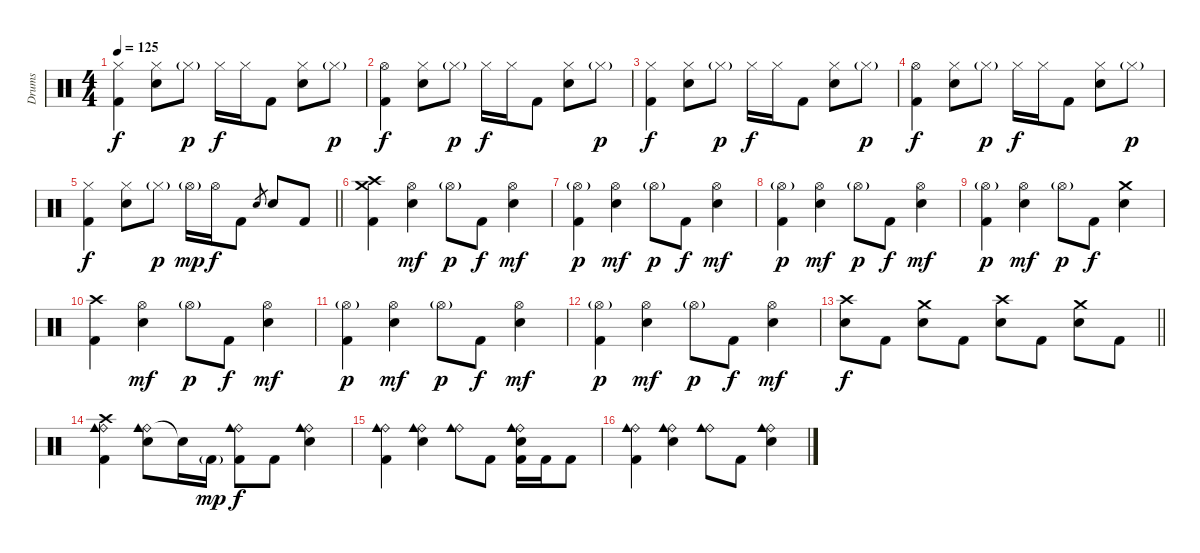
\track ("Drums" "Drums") {instrument percussion}
\staff {score}
\articulation defaults
\ts (4 4)
\tempo 125
\clef neutral
\ks c
("Hi-Hat (closed)" "Kick (hit) 2").4{dy f} ("Hi-Hat (closed)" "Electric Snare (hit)").8 "Hi-Hat (closed)"{g}.8{dy p} "Hi-Hat (closed)".16{dy f} "Hi-Hat (closed)".16 "Kick (hit) 2".8 ("Hi-Hat (closed)" "Electric Snare (hit)").8 "Hi-Hat (closed)"{g}.8{dy p} |
("Hi-Hat (open)" "Kick (hit) 2").4{dy f} ("Hi-Hat (closed)" "Electric Snare (hit)").8 "Hi-Hat (closed)"{g}.8{dy p} "Hi-Hat (closed)".16{dy f} "Hi-Hat (closed)".16 "Kick (hit) 2".8 ("Hi-Hat (closed)" "Electric Snare (hit)").8 "Hi-Hat (closed)"{g}.8{dy p} |
("Hi-Hat (closed)" "Kick (hit) 2").4{dy f} ("Hi-Hat (closed)" "Electric Snare (hit)").8 "Hi-Hat (closed)"{g}.8{dy p} "Hi-Hat (closed)".16{dy f} "Hi-Hat (closed)".16 "Kick (hit) 2".8 ("Hi-Hat (closed)" "Electric Snare (hit)").8 "Hi-Hat (closed)"{g}.8{dy p} |
("Hi-Hat (open)" "Kick (hit) 2").4{dy f} ("Hi-Hat (closed)" "Electric Snare (hit)").8 "Hi-Hat (closed)"{g}.8{dy p} "Hi-Hat (closed)".16{dy f} "Hi-Hat (closed)".16 "Kick (hit) 2".8 ("Hi-Hat (closed)" "Electric Snare (hit)").8 "Hi-Hat (closed)"{g}.8{dy p} |
\barLineRight lightlight
("Hi-Hat (closed)" "Kick (hit) 2").4{dy f} ("Hi-Hat (closed)" "Electric Snare (hit)").8 "Hi-Hat (closed)"{g}.8{dy p} "Hi-Hat (open)"{g}.16{dy mp} "Hi-Hat (open)".16{dy f} "Kick (hit) 2".8 "Electric Snare (hit)".8{gr} "Electric Snare (hit)".8 "Kick (hit) 2".8 |
("Crash high (hit)" "Crash medium (hit)" "Kick (hit) 2").4 ("Hi-Hat (open)" "Electric Snare (hit)").4{dy mf} "Hi-Hat (open)"{g}.8{dy p} "Kick (hit) 2".8{dy f} ("Hi-Hat (open)" "Electric Snare (hit)").4{dy mf} |
("Hi-Hat (open)"{g} "Kick (hit) 2").4{dy p} ("Hi-Hat (open)" "Electric Snare (hit)").4{dy mf} "Hi-Hat (open)"{g}.8{dy p} "Kick (hit) 2".8{dy f} ("Hi-Hat (open)" "Electric Snare (hit)").4{dy mf} |
("Hi-Hat (open)"{g} "Kick (hit) 2").4{dy p} ("Hi-Hat (open)" "Electric Snare (hit)").4{dy mf} "Hi-Hat (open)"{g}.8{dy p} "Kick (hit) 2".8{dy f} ("Hi-Hat (open)" "Electric Snare (hit)").4{dy mf} |
("Hi-Hat (open)"{g} "Kick (hit) 2").4{dy p} ("Hi-Hat (open)" "Electric Snare (hit)").4{dy mf} "Hi-Hat (open)"{g}.8{dy p} "Kick (hit) 2".8{dy f} ("Crash medium (hit)" "Electric Snare (hit)").4 |
("Crash high (hit)" "Kick (hit) 2").4 ("Hi-Hat (open)" "Electric Snare (hit)").4{dy mf} "Hi-Hat (open)"{g}.8{dy p} "Kick (hit) 2".8{dy f} ("Hi-Hat (open)" "Electric Snare (hit)").4{dy mf} |
("Hi-Hat (open)"{g} "Kick (hit) 2").4{dy p} ("Hi-Hat (open)" "Electric Snare (hit)").4{dy mf} "Hi-Hat (open)"{g}.8{dy p} "Kick (hit) 2".8{dy f} ("Hi-Hat (open)" "Electric Snare (hit)").4{dy mf} |
("Hi-Hat (open)"{g} "Kick (hit) 2").4{dy p} ("Hi-Hat (open)" "Electric Snare (hit)").4{dy mf} "Hi-Hat (open)"{g}.8{dy p} "Kick (hit) 2".8{dy f} ("Hi-Hat (open)" "Electric Snare (hit)").4{dy mf} |
\barLineRight lightlight
("Crash high (hit)" "Electric Snare (hit)").8{dy f} "Kick (hit) 2".8 ("Crash medium (hit)" "Electric Snare (hit)").8 "Kick (hit) 2".8 ("Crash high (hit)" "Electric Snare (hit)").8 "Kick (hit) 2".8 ("Crash medium (hit)" "Electric Snare (hit)").8 "Kick (hit) 2".8 |
("Crash high (hit)" "Ride (bell)" "Cowbell medium (hit)" "Kick (hit) 2").4 ("Ride (bell)" "Cowbell medium (hit)" "Electric Snare (hit)").8 "Snare (hit)"{t}.16 "Kick (hit) 2"{g}.16{dy mp} ("Ride (bell)" "Cowbell medium (hit)" "Kick (hit) 2").8{dy f} "Kick (hit) 2".8 ("Ride (bell)" "Cowbell medium (hit)" "Electric Snare (hit)").4 |
("Ride (bell)" "Cowbell medium (hit)" "Kick (hit) 2").4 ("Ride (bell)" "Cowbell medium (hit)" "Electric Snare (hit)").4 ("Ride (bell)" "Cowbell medium (hit)").8 "Kick (hit) 2".8 ("Ride (bell)" "Cowbell medium (hit)" "Electric Snare (hit)" "Kick (hit) 2").16 "Kick (hit) 2".16 "Kick (hit) 2".8 |
("Ride (bell)" "Cowbell medium (hit)" "Kick (hit) 2").4 ("Ride (bell)" "Cowbell medium (hit)" "Electric Snare (hit)").4 ("Ride (bell)" "Cowbell medium (hit)").8 "Kick (hit) 2".8 ("Ride (bell)" "Cowbell medium (hit)" "Electric Snare (hit)").4
